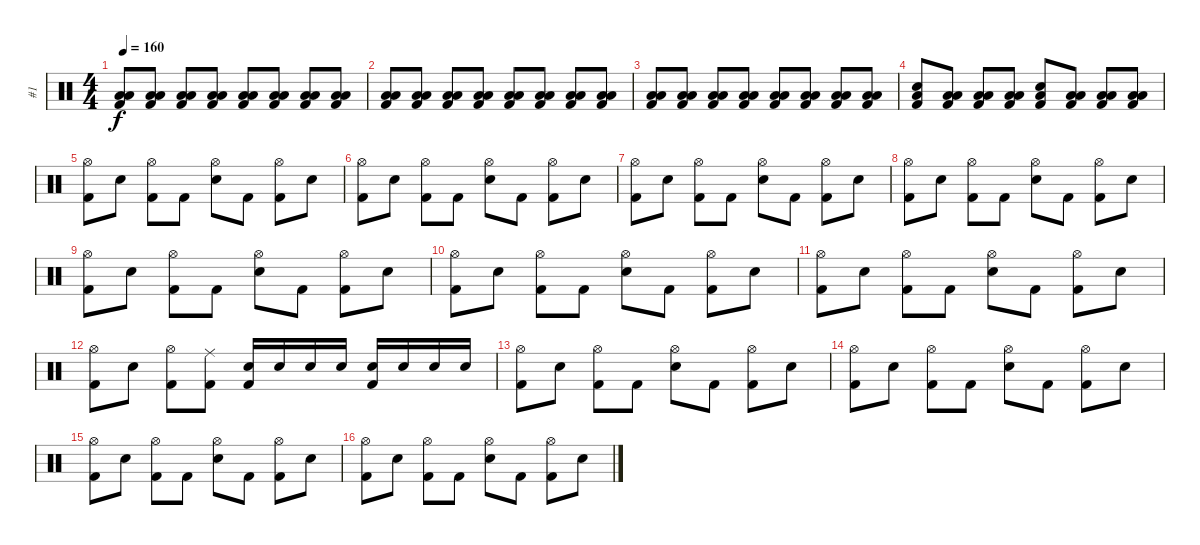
\track ("#1" "#1") {instrument percussion}
\staff {score}
\articulation defaults
\ts (4 4)
\tempo 160
\clef neutral
\ks c
("Low Tom (hit)" "Low Floor Tom (hit)" "Kick (hit) 2").8{dy f} ("Low Tom (hit)" "Low Floor Tom (hit)" "Kick (hit) 2").8 ("Low Tom (hit)" "Low Floor Tom (hit)" "Kick (hit) 2").8 ("Low Tom (hit)" "Low Floor Tom (hit)" "Kick (hit) 2").8 ("Low Tom (hit)" "Low Floor Tom (hit)" "Kick (hit) 2").8 ("Low Tom (hit)" "Low Floor Tom (hit)" "Kick (hit) 2").8 ("Low Tom (hit)" "Low Floor Tom (hit)" "Kick (hit) 2").8 ("Low Tom (hit)" "Low Floor Tom (hit)" "Kick (hit) 2").8 |
("Low Tom (hit)" "Low Floor Tom (hit)" "Kick (hit) 2").8 ("Low Tom (hit)" "Low Floor Tom (hit)" "Kick (hit) 2").8 ("Low Tom (hit)" "Low Floor Tom (hit)" "Kick (hit) 2").8 ("Low Tom (hit)" "Low Floor Tom (hit)" "Kick (hit) 2").8 ("Low Tom (hit)" "Low Floor Tom (hit)" "Kick (hit) 2").8 ("Low Tom (hit)" "Low Floor Tom (hit)" "Kick (hit) 2").8 ("Low Tom (hit)" "Low Floor Tom (hit)" "Kick (hit) 2").8 ("Low Tom (hit)" "Low Floor Tom (hit)" "Kick (hit) 2").8 |
("Low Tom (hit)" "Low Floor Tom (hit)" "Kick (hit) 2").8 ("Low Tom (hit)" "Low Floor Tom (hit)" "Kick (hit) 2").8 ("Low Tom (hit)" "Low Floor Tom (hit)" "Kick (hit) 2").8 ("Low Tom (hit)" "Low Floor Tom (hit)" "Kick (hit) 2").8 ("Low Tom (hit)" "Low Floor Tom (hit)" "Kick (hit) 2").8 ("Low Tom (hit)" "Low Floor Tom (hit)" "Kick (hit) 2").8 ("Low Tom (hit)" "Low Floor Tom (hit)" "Kick (hit) 2").8 ("Low Tom (hit)" "Low Floor Tom (hit)" "Kick (hit) 2").8 |
("Electric Snare (hit)" "Low Floor Tom (hit)" "Kick (hit) 2").8 ("Low Tom (hit)" "Low Floor Tom (hit)" "Kick (hit) 2").8 ("Low Tom (hit)" "Low Floor Tom (hit)" "Kick (hit) 2").8 ("Low Tom (hit)" "Low Floor Tom (hit)" "Kick (hit) 2").8 ("Electric Snare (hit)" "Low Floor Tom (hit)" "Kick (hit) 2").8 ("Low Tom (hit)" "Low Floor Tom (hit)" "Kick (hit) 2").8 ("Low Tom (hit)" "Low Floor Tom (hit)" "Kick (hit) 2").8 ("Low Tom (hit)" "Low Floor Tom (hit)" "Kick (hit) 2").8 |
("Kick (hit) 2" "Hi-Hat (open)").8 "Electric Snare (hit)".8 ("Kick (hit) 2" "Hi-Hat (open)").8 "Kick (hit) 2".8 ("Electric Snare (hit)" "Hi-Hat (open)").8 "Kick (hit) 2".8 ("Kick (hit) 2" "Hi-Hat (open)").8 "Electric Snare (hit)".8 |
("Kick (hit) 2" "Hi-Hat (open)").8 "Electric Snare (hit)".8 ("Kick (hit) 2" "Hi-Hat (open)").8 "Kick (hit) 2".8 ("Electric Snare (hit)" "Hi-Hat (open)").8 "Kick (hit) 2".8 ("Kick (hit) 2" "Hi-Hat (open)").8 "Electric Snare (hit)".8 |
("Kick (hit) 2" "Hi-Hat (open)").8 "Electric Snare (hit)".8 ("Kick (hit) 2" "Hi-Hat (open)").8 "Kick (hit) 2".8 ("Electric Snare (hit)" "Hi-Hat (open)").8 "Kick (hit) 2".8 ("Kick (hit) 2" "Hi-Hat (open)").8 "Electric Snare (hit)".8 |
("Kick (hit) 2" "Hi-Hat (open)").8 "Electric Snare (hit)".8 ("Kick (hit) 2" "Hi-Hat (open)").8 "Kick (hit) 2".8 ("Electric Snare (hit)" "Hi-Hat (open)").8 "Kick (hit) 2".8 ("Kick (hit) 2" "Hi-Hat (open)").8 "Electric Snare (hit)".8 |
("Kick (hit) 2" "Hi-Hat (open)").8 "Electric Snare (hit)".8 ("Kick (hit) 2" "Hi-Hat (open)").8 "Kick (hit) 2".8 ("Electric Snare (hit)" "Hi-Hat (open)").8 "Kick (hit) 2".8 ("Kick (hit) 2" "Hi-Hat (open)").8 "Electric Snare (hit)".8 |
("Kick (hit) 2" "Hi-Hat (open)").8 "Electric Snare (hit)".8 ("Kick (hit) 2" "Hi-Hat (open)").8 "Kick (hit) 2".8 ("Electric Snare (hit)" "Hi-Hat (open)").8 "Kick (hit) 2".8 ("Kick (hit) 2" "Hi-Hat (open)").8 "Electric Snare (hit)".8 |
("Kick (hit) 2" "Hi-Hat (open)").8 "Electric Snare (hit)".8 ("Kick (hit) 2" "Hi-Hat (open)").8 "Kick (hit) 2".8 ("Electric Snare (hit)" "Hi-Hat (open)").8 "Kick (hit) 2".8 ("Kick (hit) 2" "Hi-Hat (open)").8 "Electric Snare (hit)".8 |
("Kick (hit) 2" "Hi-Hat (open)").8 "Electric Snare (hit)".8 ("Kick (hit) 2" "Hi-Hat (open)").8 ("Kick (hit) 2" "Ride (middle)").8 ("Electric Snare (hit)" "Kick (hit) 2").16 "Electric Snare (hit)".16 "Electric Snare (hit)".16 "Electric Snare (hit)".16 ("Electric Snare (hit)" "Kick (hit) 2").16 "Electric Snare (hit)".16 "Electric Snare (hit)".16 "Electric Snare (hit)".16 |
("Kick (hit) 2" "Hi-Hat (open)").8 "Electric Snare (hit)".8 ("Kick (hit) 2" "Hi-Hat (open)").8 "Kick (hit) 2".8 ("Electric Snare (hit)" "Hi-Hat (open)").8 "Kick (hit) 2".8 ("Kick (hit) 2" "Hi-Hat (open)").8 "Electric Snare (hit)".8 |
("Kick (hit) 2" "Hi-Hat (open)").8 "Electric Snare (hit)".8 ("Kick (hit) 2" "Hi-Hat (open)").8 "Kick (hit) 2".8 ("Electric Snare (hit)" "Hi-Hat (open)").8 "Kick (hit) 2".8 ("Kick (hit) 2" "Hi-Hat (open)").8 "Electric Snare (hit)".8 |
("Kick (hit) 2" "Hi-Hat (open)").8 "Electric Snare (hit)".8 ("Kick (hit) 2" "Hi-Hat (open)").8 "Kick (hit) 2".8 ("Electric Snare (hit)" "Hi-Hat (open)").8 "Kick (hit) 2".8 ("Kick (hit) 2" "Hi-Hat (open)").8 "Electric Snare (hit)".8 |
("Kick (hit) 2" "Hi-Hat (open)").8 "Electric Snare (hit)".8 ("Kick (hit) 2" "Hi-Hat (open)").8 "Kick (hit) 2".8 ("Electric Snare (hit)" "Hi-Hat (open)").8 "Kick (hit) 2".8 ("Kick (hit) 2" "Hi-Hat (open)").8 "Electric Snare (hit)".8
